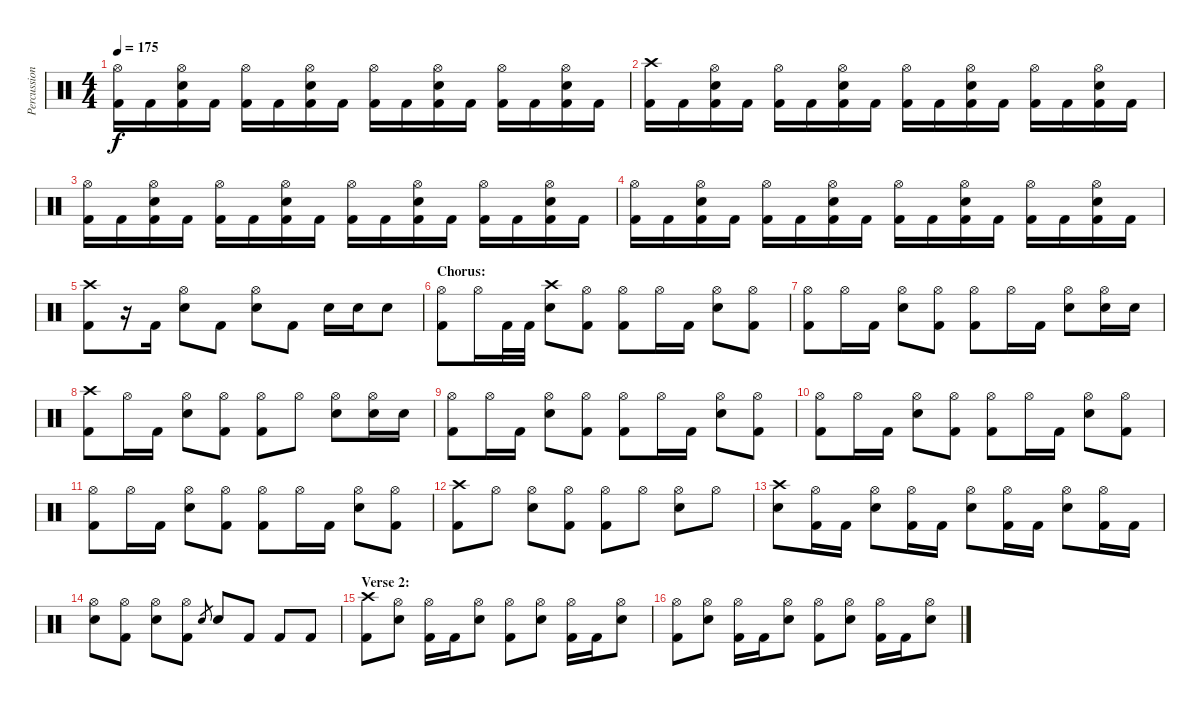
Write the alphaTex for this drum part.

\track ("Percussion" "Percussion") {instrument percussion}
\staff {score}
\articulation defaults
\ts (4 4)
\tempo 175
\clef neutral
\ks c
("Hi-Hat (open)" "Kick (hit) 2").16{dy f} "Kick (hit) 2".16 ("Hi-Hat (open)" "Electric Snare (hit)" "Kick (hit) 2").16 "Kick (hit) 2".16 ("Hi-Hat (open)" "Kick (hit) 2").16 "Kick (hit) 2".16 ("Hi-Hat (open)" "Electric Snare (hit)" "Kick (hit) 2").16 "Kick (hit) 2".16 ("Hi-Hat (open)" "Kick (hit) 2").16 "Kick (hit) 2".16 ("Hi-Hat (open)" "Electric Snare (hit)" "Kick (hit) 2").16 "Kick (hit) 2".16 ("Hi-Hat (open)" "Kick (hit) 2").16 "Kick (hit) 2".16 ("Hi-Hat (open)" "Electric Snare (hit)" "Kick (hit) 2").16 "Kick (hit) 2".16 |
("Crash high (hit)" "Kick (hit) 2").16 "Kick (hit) 2".16 ("Hi-Hat (open)" "Electric Snare (hit)" "Kick (hit) 2").16 "Kick (hit) 2".16 ("Hi-Hat (open)" "Kick (hit) 2").16 "Kick (hit) 2".16 ("Hi-Hat (open)" "Electric Snare (hit)" "Kick (hit) 2").16 "Kick (hit) 2".16 ("Hi-Hat (open)" "Kick (hit) 2").16 "Kick (hit) 2".16 ("Hi-Hat (open)" "Electric Snare (hit)" "Kick (hit) 2").16 "Kick (hit) 2".16 ("Hi-Hat (open)" "Kick (hit) 2").16 "Kick (hit) 2".16 ("Hi-Hat (open)" "Electric Snare (hit)" "Kick (hit) 2").16 "Kick (hit) 2".16 |
("Hi-Hat (open)" "Kick (hit) 2").16 "Kick (hit) 2".16 ("Hi-Hat (open)" "Electric Snare (hit)" "Kick (hit) 2").16 "Kick (hit) 2".16 ("Hi-Hat (open)" "Kick (hit) 2").16 "Kick (hit) 2".16 ("Hi-Hat (open)" "Electric Snare (hit)" "Kick (hit) 2").16 "Kick (hit) 2".16 ("Hi-Hat (open)" "Kick (hit) 2").16 "Kick (hit) 2".16 ("Hi-Hat (open)" "Electric Snare (hit)" "Kick (hit) 2").16 "Kick (hit) 2".16 ("Hi-Hat (open)" "Kick (hit) 2").16 "Kick (hit) 2".16 ("Hi-Hat (open)" "Electric Snare (hit)" "Kick (hit) 2").16 "Kick (hit) 2".16 |
("Hi-Hat (open)" "Kick (hit) 2").16 "Kick (hit) 2".16 ("Hi-Hat (open)" "Electric Snare (hit)" "Kick (hit) 2").16 "Kick (hit) 2".16 ("Hi-Hat (open)" "Kick (hit) 2").16 "Kick (hit) 2".16 ("Hi-Hat (open)" "Electric Snare (hit)" "Kick (hit) 2").16 "Kick (hit) 2".16 ("Hi-Hat (open)" "Kick (hit) 2").16 "Kick (hit) 2".16 ("Hi-Hat (open)" "Electric Snare (hit)" "Kick (hit) 2").16 "Kick (hit) 2".16 ("Hi-Hat (open)" "Kick (hit) 2").16 "Kick (hit) 2".16 ("Hi-Hat (open)" "Electric Snare (hit)" "Kick (hit) 2").16 "Kick (hit) 2".16 |
("Crash high (hit)" "Kick (hit) 2").8 r.16 "Kick (hit) 2".16 ("Hi-Hat (open)" "Electric Snare (hit)").8 "Kick (hit) 2".8 ("Hi-Hat (open)" "Electric Snare (hit)").8 "Kick (hit) 2".8 "Electric Snare (hit)".16 "Electric Snare (hit)".16 "Electric Snare (hit)".8 |
\section ("" "Chorus:")
("Hi-Hat (open)" "Kick (hit) 2").8 "Hi-Hat (open)".16 "Kick (hit) 2".32 "Kick (hit) 2".32 ("Crash high (hit)" "Electric Snare (hit)").8 ("Hi-Hat (open)" "Kick (hit) 2").8 ("Hi-Hat (open)" "Kick (hit) 2").8 "Hi-Hat (open)".16 "Kick (hit) 2".16 ("Hi-Hat (open)" "Electric Snare (hit)").8 ("Hi-Hat (open)" "Kick (hit) 2").8 |
("Hi-Hat (open)" "Kick (hit) 2").8 "Hi-Hat (open)".16 "Kick (hit) 2".16 ("Hi-Hat (open)" "Electric Snare (hit)").8 ("Hi-Hat (open)" "Kick (hit) 2").8 ("Hi-Hat (open)" "Kick (hit) 2").8 "Hi-Hat (open)".16 "Kick (hit) 2".16 ("Hi-Hat (open)" "Electric Snare (hit)").8 ("Hi-Hat (open)" "Electric Snare (hit)").16 "Electric Snare (hit)".16 |
("Crash high (hit)" "Kick (hit) 2").8 "Hi-Hat (open)".16 "Kick (hit) 2".16 ("Hi-Hat (open)" "Electric Snare (hit)").8 ("Hi-Hat (open)" "Kick (hit) 2").8 ("Hi-Hat (open)" "Kick (hit) 2").8 "Hi-Hat (open)".8 ("Hi-Hat (open)" "Electric Snare (hit)").8 ("Hi-Hat (open)" "Electric Snare (hit)").16 "Electric Snare (hit)".16 |
("Hi-Hat (open)" "Kick (hit) 2").8 "Hi-Hat (open)".16 "Kick (hit) 2".16 ("Hi-Hat (open)" "Electric Snare (hit)").8 ("Hi-Hat (open)" "Kick (hit) 2").8 ("Hi-Hat (open)" "Kick (hit) 2").8 "Hi-Hat (open)".16 "Kick (hit) 2".16 ("Hi-Hat (open)" "Electric Snare (hit)").8 ("Hi-Hat (open)" "Kick (hit) 2").8 |
("Hi-Hat (open)" "Kick (hit) 2").8 "Hi-Hat (open)".16 "Kick (hit) 2".16 ("Hi-Hat (open)" "Electric Snare (hit)").8 ("Hi-Hat (open)" "Kick (hit) 2").8 ("Hi-Hat (open)" "Kick (hit) 2").8 "Hi-Hat (open)".16 "Kick (hit) 2".16 ("Hi-Hat (open)" "Electric Snare (hit)").8 ("Hi-Hat (open)" "Kick (hit) 2").8 |
("Hi-Hat (open)" "Kick (hit) 2").8 "Hi-Hat (open)".16 "Kick (hit) 2".16 ("Hi-Hat (open)" "Electric Snare (hit)").8 ("Hi-Hat (open)" "Kick (hit) 2").8 ("Hi-Hat (open)" "Kick (hit) 2").8 "Hi-Hat (open)".16 "Kick (hit) 2".16 ("Hi-Hat (open)" "Electric Snare (hit)").8 ("Hi-Hat (open)" "Kick (hit) 2").8 |
("Crash high (hit)" "Kick (hit) 2").8 "Hi-Hat (open)".8 ("Hi-Hat (open)" "Electric Snare (hit)").8 ("Hi-Hat (open)" "Kick (hit) 2").8 ("Hi-Hat (open)" "Kick (hit) 2").8 "Hi-Hat (open)".8 ("Hi-Hat (open)" "Electric Snare (hit)").8 "Hi-Hat (open)".8 |
("Crash high (hit)" "Electric Snare (hit)").8 ("Hi-Hat (open)" "Kick (hit) 2").16 "Kick (hit) 2".16 ("Hi-Hat (open)" "Electric Snare (hit)").8 ("Hi-Hat (open)" "Kick (hit) 2").16 "Kick (hit) 2".16 ("Hi-Hat (open)" "Electric Snare (hit)").8 ("Hi-Hat (open)" "Kick (hit) 2").16 "Kick (hit) 2".16 ("Hi-Hat (open)" "Electric Snare (hit)").8 ("Hi-Hat (open)" "Kick (hit) 2").16 "Kick (hit) 2".16 |
("Hi-Hat (open)" "Electric Snare (hit)").8 ("Hi-Hat (open)" "Kick (hit) 2").8 ("Hi-Hat (open)" "Electric Snare (hit)").8 ("Hi-Hat (open)" "Kick (hit) 2").8 "Electric Snare (hit)".8{gr} "Electric Snare (hit)".8 "Kick (hit) 2".8 "Kick (hit) 2".8 "Kick (hit) 2".8 |
\section ("" "Verse 2:")
("Crash high (hit)" "Kick (hit) 2").8 ("Hi-Hat (open)" "Electric Snare (hit)").8 ("Hi-Hat (open)" "Kick (hit) 2").16 "Kick (hit) 2".16 ("Hi-Hat (open)" "Electric Snare (hit)").8 ("Hi-Hat (open)" "Kick (hit) 2").8 ("Hi-Hat (open)" "Electric Snare (hit)").8 ("Hi-Hat (open)" "Kick (hit) 2").16 "Kick (hit) 2".16 ("Hi-Hat (open)" "Electric Snare (hit)").8 |
("Hi-Hat (open)" "Kick (hit) 2").8 ("Hi-Hat (open)" "Electric Snare (hit)").8 ("Hi-Hat (open)" "Kick (hit) 2").16 "Kick (hit) 2".16 ("Hi-Hat (open)" "Electric Snare (hit)").8 ("Hi-Hat (open)" "Kick (hit) 2").8 ("Hi-Hat (open)" "Electric Snare (hit)").8 ("Hi-Hat (open)" "Kick (hit) 2").16 "Kick (hit) 2".16 ("Hi-Hat (open)" "Electric Snare (hit)").8
